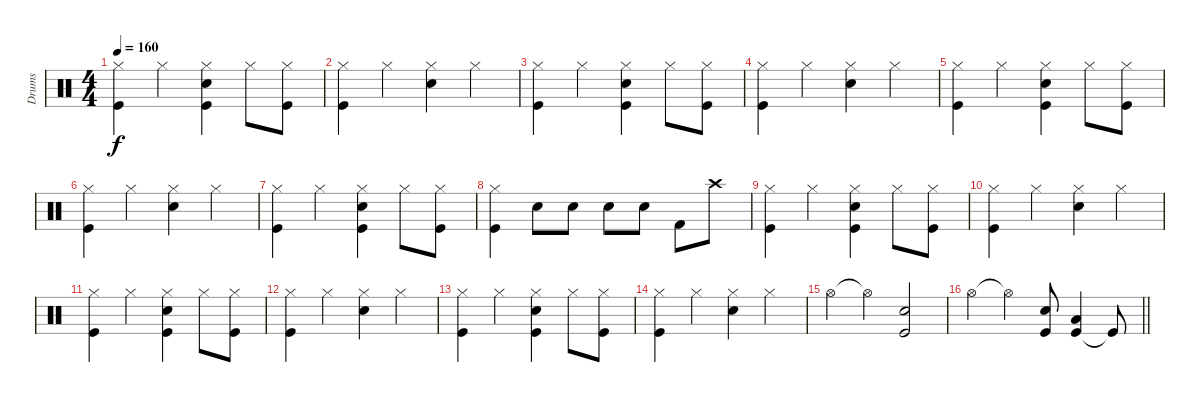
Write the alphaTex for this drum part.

\track ("Drums" "Drums") {instrument percussion}
\staff {score}
\articulation defaults
\ts (4 4)
\tempo 160
\clef neutral
\ks c
("Hi-Hat (closed)" "Kick (hit)").4{dy f} "Hi-Hat (closed)".4 ("Hi-Hat (closed)" "Kick (hit)" "Snare (hit) 2").4 "Hi-Hat (closed)".8 ("Hi-Hat (closed)" "Kick (hit)").8 |
("Kick (hit)" "Hi-Hat (closed)").4 "Hi-Hat (closed)".4 ("Hi-Hat (closed)" "Snare (hit) 2").4 "Hi-Hat (closed)".4 |
("Hi-Hat (closed)" "Kick (hit)").4 "Hi-Hat (closed)".4 ("Hi-Hat (closed)" "Kick (hit)" "Snare (hit) 2").4 "Hi-Hat (closed)".8 ("Hi-Hat (closed)" "Kick (hit)").8 |
("Kick (hit)" "Hi-Hat (closed)").4 "Hi-Hat (closed)".4 ("Hi-Hat (closed)" "Snare (hit) 2").4 "Hi-Hat (closed)".4 |
("Hi-Hat (closed)" "Kick (hit)").4 "Hi-Hat (closed)".4 ("Hi-Hat (closed)" "Kick (hit)" "Snare (hit) 2").4 "Hi-Hat (closed)".8 ("Hi-Hat (closed)" "Kick (hit)").8 |
("Kick (hit)" "Hi-Hat (closed)").4 "Hi-Hat (closed)".4 ("Hi-Hat (closed)" "Snare (hit) 2").4 "Hi-Hat (closed)".4 |
("Hi-Hat (closed)" "Kick (hit)").4 "Hi-Hat (closed)".4 ("Hi-Hat (closed)" "Kick (hit)" "Snare (hit) 2").4 "Hi-Hat (closed)".8 ("Hi-Hat (closed)" "Kick (hit)").8 |
("Kick (hit)" "Hi-Hat (closed)").4 "Snare (hit) 2".8 "Snare (hit) 2".8 "Snare (hit) 2".8 "Snare (hit) 2".8 "Kick (hit) 2".8 "Crash high (hit)".8 |
("Hi-Hat (closed)" "Kick (hit)").4 "Hi-Hat (closed)".4 ("Hi-Hat (closed)" "Kick (hit)" "Snare (hit) 2").4 "Hi-Hat (closed)".8 ("Hi-Hat (closed)" "Kick (hit)").8 |
("Kick (hit)" "Hi-Hat (closed)").4 "Hi-Hat (closed)".4 ("Hi-Hat (closed)" "Snare (hit) 2").4 "Hi-Hat (closed)".4 |
("Hi-Hat (closed)" "Kick (hit)").4 "Hi-Hat (closed)".4 ("Hi-Hat (closed)" "Kick (hit)" "Snare (hit) 2").4 "Hi-Hat (closed)".8 ("Hi-Hat (closed)" "Kick (hit)").8 |
("Kick (hit)" "Hi-Hat (closed)").4 "Hi-Hat (closed)".4 ("Hi-Hat (closed)" "Snare (hit) 2").4 "Hi-Hat (closed)".4 |
("Hi-Hat (closed)" "Kick (hit)").4 "Hi-Hat (closed)".4 ("Hi-Hat (closed)" "Kick (hit)" "Snare (hit) 2").4 "Hi-Hat (closed)".8 ("Hi-Hat (closed)" "Kick (hit)").8 |
("Kick (hit)" "Hi-Hat (closed)").4 "Hi-Hat (closed)".4 ("Hi-Hat (closed)" "Snare (hit) 2").4 "Hi-Hat (closed)".4 |
"Hi-Hat (open)".4 "Hi-Hat (open)"{t}.4 ("Kick (hit)" "Snare (hit) 2").2 |
\barLineRight lightlight "Hi-Hat (open)".4 "Hi-Hat (open)"{t}.4
("Snare (hit) 2" "Kick (hit)").8 ("Kick (hit)" "Low Floor Tom (hit)").4 "Kick (hit)"{t}.8
